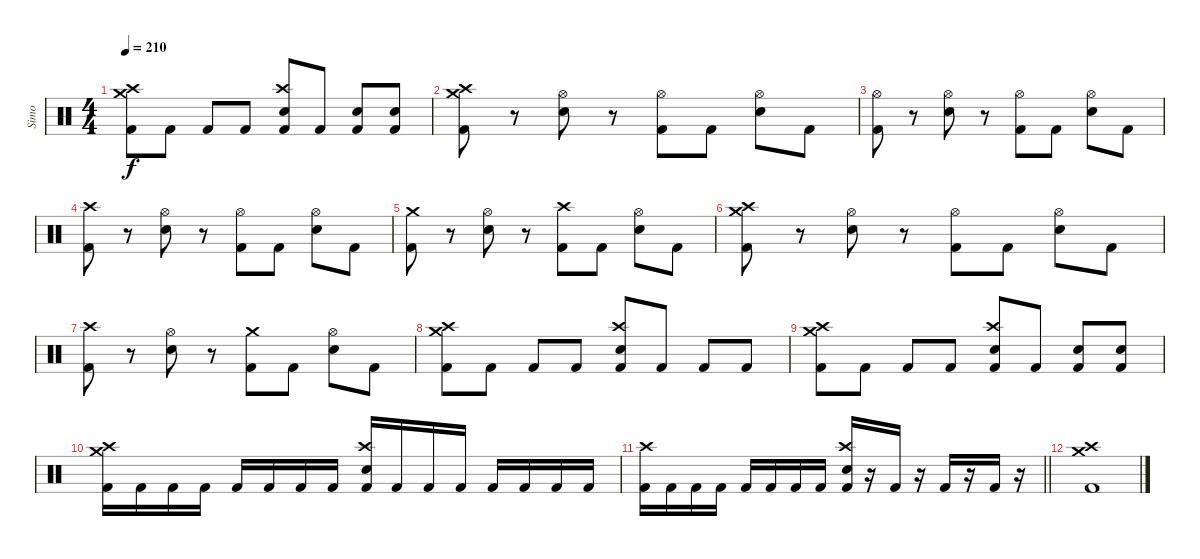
\track ("Simo" "Simo") {instrument percussion bank 121}
\staff {score}
\articulation defaults
\ts (4 4)
\tempo 210
\clef neutral
\ks c
("Kick (hit) 2" "Crash medium (hit)" "Crash high (hit)").8{dy f} "Kick (hit) 2".8 "Kick (hit) 2".8 "Kick (hit) 2".8 ("Kick (hit) 2" "Crash high (hit)" "Electric Snare (hit)").8 "Kick (hit) 2".8 ("Kick (hit) 2" "Electric Snare (hit)").8 ("Kick (hit) 2" "Electric Snare (hit)").8 |
("Kick (hit) 2" "Crash high (hit)" "Crash medium (hit)").8 r.8 ("Electric Snare (hit)" "Hi-Hat (open)").8 r.8 ("Kick (hit) 2" "Hi-Hat (open)").8 "Kick (hit) 2".8 ("Electric Snare (hit)" "Hi-Hat (open)").8 "Kick (hit) 2".8 |
("Kick (hit) 2" "Hi-Hat (open)").8 r.8 ("Electric Snare (hit)" "Hi-Hat (open)").8 r.8 ("Kick (hit) 2" "Hi-Hat (open)").8 "Kick (hit) 2".8 ("Electric Snare (hit)" "Hi-Hat (open)").8 "Kick (hit) 2".8 |
("Kick (hit) 2" "Crash high (hit)").8 r.8 ("Electric Snare (hit)" "Hi-Hat (open)").8 r.8 ("Kick (hit) 2" "Hi-Hat (open)").8 "Kick (hit) 2".8 ("Electric Snare (hit)" "Hi-Hat (open)").8 "Kick (hit) 2".8 |
("Kick (hit) 2" "Crash medium (hit)").8 r.8 ("Electric Snare (hit)" "Hi-Hat (open)").8 r.8 ("Kick (hit) 2" "Crash high (hit)").8 "Kick (hit) 2".8 ("Electric Snare (hit)" "Hi-Hat (open)").8 "Kick (hit) 2".8 |
("Kick (hit) 2" "Crash high (hit)" "Crash medium (hit)").8 r.8 ("Electric Snare (hit)" "Hi-Hat (open)").8 r.8 ("Kick (hit) 2" "Hi-Hat (open)").8 "Kick (hit) 2".8 ("Electric Snare (hit)" "Hi-Hat (open)").8 "Kick (hit) 2".8 |
("Kick (hit) 2" "Crash high (hit)").8 r.8 ("Electric Snare (hit)" "Hi-Hat (open)").8 r.8 ("Kick (hit) 2" "Crash medium (hit)").8 "Kick (hit) 2".8 ("Electric Snare (hit)" "Hi-Hat (open)").8 "Kick (hit) 2".8 |
("Kick (hit) 2" "Crash medium (hit)" "Crash high (hit)").8 "Kick (hit) 2".8 "Kick (hit) 2".8 "Kick (hit) 2".8 ("Kick (hit) 2" "Crash high (hit)" "Electric Snare (hit)").8 "Kick (hit) 2".8 "Kick (hit) 2".8 "Kick (hit) 2".8 |
("Kick (hit) 2" "Crash medium (hit)" "Crash high (hit)").8 "Kick (hit) 2".8 "Kick (hit) 2".8 "Kick (hit) 2".8 ("Kick (hit) 2" "Crash high (hit)" "Electric Snare (hit)").8 "Kick (hit) 2".8 ("Kick (hit) 2" "Electric Snare (hit)").8 ("Kick (hit) 2" "Electric Snare (hit)").8 |
("Kick (hit) 2" "Crash high (hit)" "Crash medium (hit)").16 "Kick (hit) 2".16 "Kick (hit) 2".16 "Kick (hit) 2".16 "Kick (hit) 2".16 "Kick (hit) 2".16 "Kick (hit) 2".16 "Kick (hit) 2".16 ("Kick (hit) 2" "Crash high (hit)" "Electric Snare (hit)").16 "Kick (hit) 2".16 "Kick (hit) 2".16 "Kick (hit) 2".16 "Kick (hit) 2".16 "Kick (hit) 2".16 "Kick (hit) 2".16 "Kick (hit) 2".16 |
\barLineRight lightlight
("Kick (hit) 2" "Crash high (hit)").16 "Kick (hit) 2".16 "Kick (hit) 2".16 "Kick (hit) 2".16 "Kick (hit) 2".16 "Kick (hit) 2".16 "Kick (hit) 2".16 "Kick (hit) 2".16 ("Kick (hit) 2" "Crash high (hit)" "Electric Snare (hit)").16 r.16 "Kick (hit) 2".16 r.16 "Kick (hit) 2".16 r.16 "Kick (hit) 2".16 r.16 |
("Crash medium (hit)" "Kick (hit) 2" "Crash high (hit)").1
